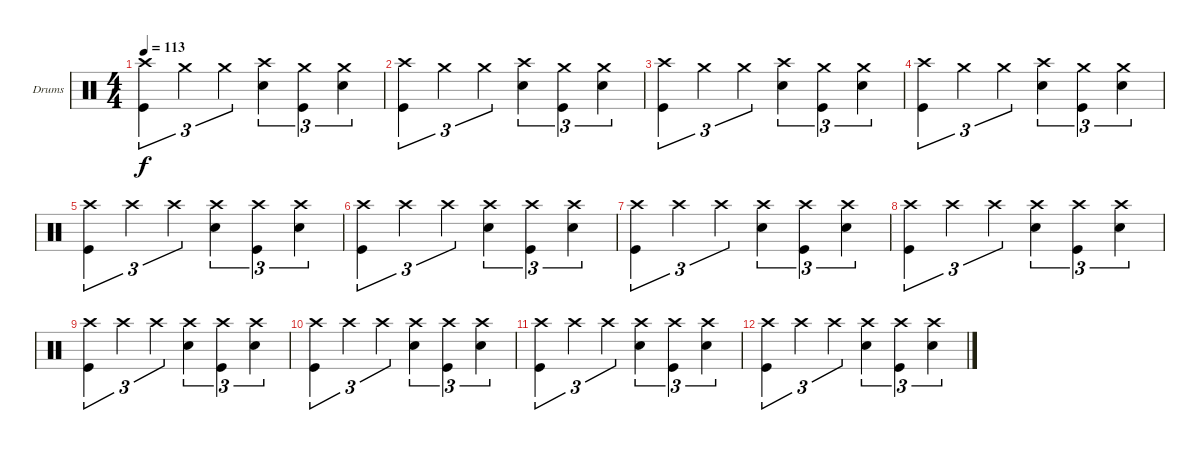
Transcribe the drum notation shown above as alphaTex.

\defaultSystemsLayout 4
\bracketExtendMode groupsimilarinstruments
\firstSystemTrackNameOrientation horizontal
\otherSystemsTrackNameOrientation horizontal
\track ("Drumkit" "Drums") {instrument percussion}
\staff {score}
\articulation defaults
\ts (4 4)
\tempo 113
\clef neutral
\ks c
("Kick (hit)" "Crash high (hit)").4{tu (3 2) dy f} "Crash medium (hit)".4{tu (3 2)} "Crash medium (hit)".4{tu (3 2)} ("Snare (hit) 2" "Crash high (hit)").4{tu (3 2)} ("Kick (hit)" "Crash medium (hit)").4{tu (3 2)} ("Crash medium (hit)" "Snare (hit) 2").4{tu (3 2)} |
("Kick (hit)" "Crash high (hit)").4{tu (3 2)} "Crash medium (hit)".4{tu (3 2)} "Crash medium (hit)".4{tu (3 2)} ("Snare (hit) 2" "Crash high (hit)").4{tu (3 2)} ("Kick (hit)" "Crash medium (hit)").4{tu (3 2)} ("Crash medium (hit)" "Snare (hit) 2").4{tu (3 2)} |
("Kick (hit)" "Crash high (hit)").4{tu (3 2)} "Crash medium (hit)".4{tu (3 2)} "Crash medium (hit)".4{tu (3 2)} ("Snare (hit) 2" "Crash high (hit)").4{tu (3 2)} ("Kick (hit)" "Crash medium (hit)").4{tu (3 2)} ("Crash medium (hit)" "Snare (hit) 2").4{tu (3 2)} |
("Kick (hit)" "Crash high (hit)").4{tu (3 2)} "Crash medium (hit)".4{tu (3 2)} "Crash medium (hit)".4{tu (3 2)} ("Snare (hit) 2" "Crash high (hit)").4{tu (3 2)} ("Kick (hit)" "Crash medium (hit)").4{tu (3 2)} ("Crash medium (hit)" "Snare (hit) 2").4{tu (3 2)} |
("Kick (hit)" "Crash high (hit)").4{tu (3 2)} "Crash high (hit)".4{tu (3 2)} "Crash high (hit)".4{tu (3 2)} ("Snare (hit) 2" "Crash high (hit)").4{tu (3 2)} ("Kick (hit)" "Crash high (hit)").4{tu (3 2)} ("Snare (hit) 2" "Crash high (hit)").4{tu (3 2)} |
("Kick (hit)" "Crash high (hit)").4{tu (3 2)} "Crash high (hit)".4{tu (3 2)} "Crash high (hit)".4{tu (3 2)} ("Snare (hit) 2" "Crash high (hit)").4{tu (3 2)} ("Kick (hit)" "Crash high (hit)").4{tu (3 2)} ("Snare (hit) 2" "Crash high (hit)").4{tu (3 2)} |
("Kick (hit)" "Crash high (hit)").4{tu (3 2)} "Crash high (hit)".4{tu (3 2)} "Crash high (hit)".4{tu (3 2)} ("Snare (hit) 2" "Crash high (hit)").4{tu (3 2)} ("Kick (hit)" "Crash high (hit)").4{tu (3 2)} ("Snare (hit) 2" "Crash high (hit)").4{tu (3 2)} |
("Kick (hit)" "Crash high (hit)").4{tu (3 2)} "Crash high (hit)".4{tu (3 2)} "Crash high (hit)".4{tu (3 2)} ("Snare (hit) 2" "Crash high (hit)").4{tu (3 2)} ("Kick (hit)" "Crash high (hit)").4{tu (3 2)} ("Snare (hit) 2" "Crash high (hit)").4{tu (3 2)} |
("Kick (hit)" "Crash high (hit)").4{tu (3 2)} "Crash high (hit)".4{tu (3 2)} "Crash high (hit)".4{tu (3 2)} ("Snare (hit) 2" "Crash high (hit)").4{tu (3 2)} ("Kick (hit)" "Crash high (hit)").4{tu (3 2)} ("Snare (hit) 2" "Crash high (hit)").4{tu (3 2)} |
("Kick (hit)" "Crash high (hit)").4{tu (3 2)} "Crash high (hit)".4{tu (3 2)} "Crash high (hit)".4{tu (3 2)} ("Snare (hit) 2" "Crash high (hit)").4{tu (3 2)} ("Kick (hit)" "Crash high (hit)").4{tu (3 2)} ("Snare (hit) 2" "Crash high (hit)").4{tu (3 2)} |
("Kick (hit)" "Crash high (hit)").4{tu (3 2)} "Crash high (hit)".4{tu (3 2)} "Crash high (hit)".4{tu (3 2)} ("Snare (hit) 2" "Crash high (hit)").4{tu (3 2)} ("Kick (hit)" "Crash high (hit)").4{tu (3 2)} ("Snare (hit) 2" "Crash high (hit)").4{tu (3 2)} |
("Kick (hit)" "Crash high (hit)").4{tu (3 2)} "Crash high (hit)".4{tu (3 2)} "Crash high (hit)".4{tu (3 2)} ("Snare (hit) 2" "Crash high (hit)").4{tu (3 2)} ("Kick (hit)" "Crash high (hit)").4{tu (3 2)} ("Snare (hit) 2" "Crash high (hit)").4{tu (3 2)}
